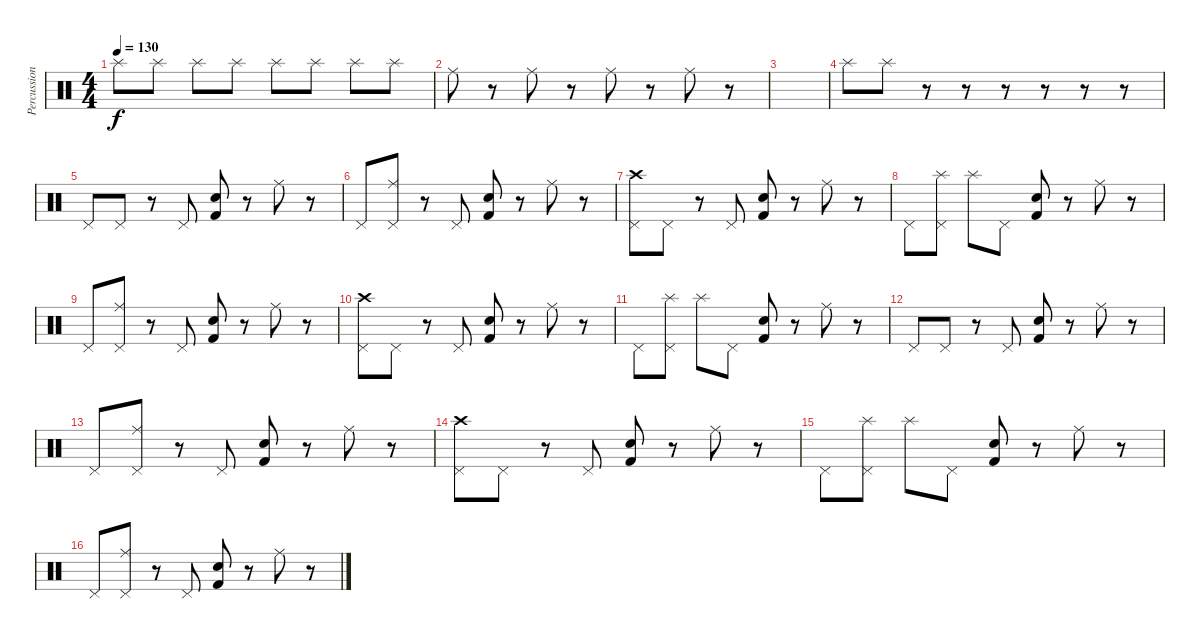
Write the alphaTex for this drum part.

\track ("Percussions" "Percussion") {instrument percussion}
\staff {score}
\articulation defaults
\ts (4 4)
\tempo 130
\clef neutral
\ks c "Splash (hit)".8{dy f} "Splash (hit)".8 "Splash (hit)".8 "Splash (hit)".8 "Splash (hit)".8 "Splash (hit)".8 "Splash (hit)".8 "Splash (hit)".8
|
"Ride (middle)".8 r.8 "Ride (middle)".8 r.8 "Ride (middle)".8 r.8 "Ride (middle)".8 r.8 |
|
"Splash (hit)".8 "Splash (hit)".8 r.8 r.8 r.8 r.8 r.8 r.8 |
"Pedal Hi-Hat (hit)".8 "Pedal Hi-Hat (hit)".8 r.8 "Pedal Hi-Hat (hit)".8 ("Kick (hit) 2" "Electric Snare (hit)").8 r.8 "Ride (middle)".8 r.8 |
"Pedal Hi-Hat (hit)".8 ("Ride (middle)" "Pedal Hi-Hat (hit)").8 r.8 "Pedal Hi-Hat (hit)".8 ("Kick (hit) 2" "Electric Snare (hit)").8 r.8 "Ride (middle)".8 r.8 |
("Crash high (hit)" "Pedal Hi-Hat (hit)").8 "Pedal Hi-Hat (hit)".8 r.8 "Pedal Hi-Hat (hit)".8 ("Kick (hit) 2" "Electric Snare (hit)").8 r.8 "Ride (middle)".8 r.8 |
"Pedal Hi-Hat (hit)".8 ("Splash (hit)" "Pedal Hi-Hat (hit)").8 "Splash (hit)".8 "Pedal Hi-Hat (hit)".8 ("Kick (hit) 2" "Electric Snare (hit)").8 r.8 "Ride (middle)".8 r.8 |
"Pedal Hi-Hat (hit)".8 ("Ride (middle)" "Pedal Hi-Hat (hit)").8 r.8 "Pedal Hi-Hat (hit)".8 ("Kick (hit) 2" "Electric Snare (hit)").8 r.8 "Ride (middle)".8 r.8 |
("Crash high (hit)" "Pedal Hi-Hat (hit)").8 "Pedal Hi-Hat (hit)".8 r.8 "Pedal Hi-Hat (hit)".8 ("Kick (hit) 2" "Electric Snare (hit)").8 r.8 "Ride (middle)".8 r.8 |
"Pedal Hi-Hat (hit)".8 ("Splash (hit)" "Pedal Hi-Hat (hit)").8 "Splash (hit)".8 "Pedal Hi-Hat (hit)".8 ("Kick (hit) 2" "Electric Snare (hit)").8 r.8 "Ride (middle)".8 r.8 |
"Pedal Hi-Hat (hit)".8 "Pedal Hi-Hat (hit)".8 r.8 "Pedal Hi-Hat (hit)".8 ("Kick (hit) 2" "Electric Snare (hit)").8 r.8 "Ride (middle)".8 r.8 |
"Pedal Hi-Hat (hit)".8 ("Ride (middle)" "Pedal Hi-Hat (hit)").8 r.8 "Pedal Hi-Hat (hit)".8 ("Kick (hit) 2" "Electric Snare (hit)").8 r.8 "Ride (middle)".8 r.8 |
("Crash high (hit)" "Pedal Hi-Hat (hit)").8 "Pedal Hi-Hat (hit)".8 r.8 "Pedal Hi-Hat (hit)".8 ("Kick (hit) 2" "Electric Snare (hit)").8 r.8 "Ride (middle)".8 r.8 |
"Pedal Hi-Hat (hit)".8 ("Splash (hit)" "Pedal Hi-Hat (hit)").8 "Splash (hit)".8 "Pedal Hi-Hat (hit)".8 ("Kick (hit) 2" "Electric Snare (hit)").8 r.8 "Ride (middle)".8 r.8 |
"Pedal Hi-Hat (hit)".8 ("Ride (middle)" "Pedal Hi-Hat (hit)").8 r.8 "Pedal Hi-Hat (hit)".8 ("Kick (hit) 2" "Electric Snare (hit)").8 r.8 "Ride (middle)".8 r.8
